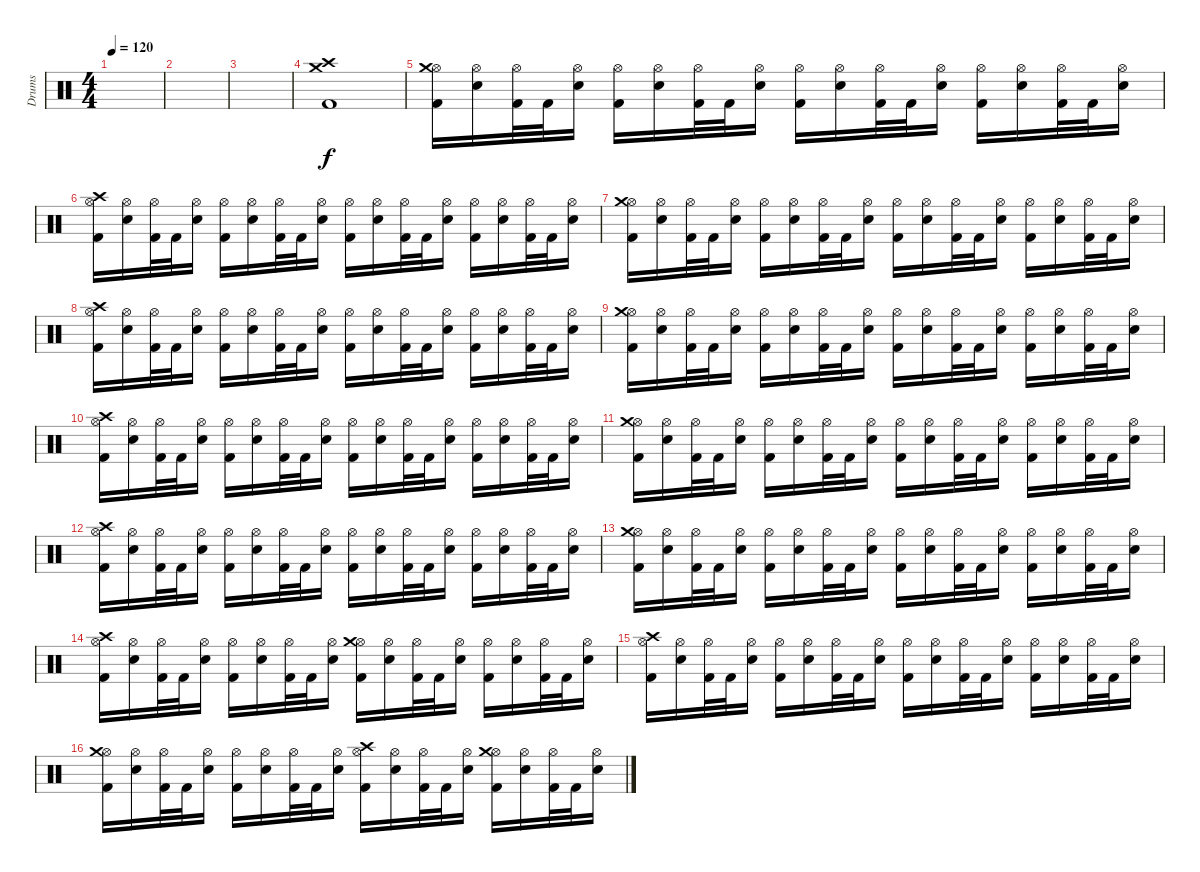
\track ("Drums" "Drums") {instrument percussion}
\staff {score}
\articulation defaults
\ts (4 4)
\tempo 120
\clef neutral
\ks c
|
|
|
("Crash medium (hit)" "Crash high (hit)" "Kick (hit) 2").1 |
("Hi-Hat (open)" "Kick (hit) 2" "Crash medium (hit)").16 ("Hi-Hat (open)" "Electric Snare (hit)").16 ("Hi-Hat (open)" "Kick (hit) 2").32 "Kick (hit) 2".32 ("Hi-Hat (open)" "Electric Snare (hit)").16 ("Hi-Hat (open)" "Kick (hit) 2").16 ("Hi-Hat (open)" "Electric Snare (hit)").16 ("Hi-Hat (open)" "Kick (hit) 2").32 "Kick (hit) 2".32 ("Hi-Hat (open)" "Electric Snare (hit)").16 ("Hi-Hat (open)" "Kick (hit) 2").16 ("Hi-Hat (open)" "Electric Snare (hit)").16 ("Hi-Hat (open)" "Kick (hit) 2").32 "Kick (hit) 2".32 ("Hi-Hat (open)" "Electric Snare (hit)").16 ("Hi-Hat (open)" "Kick (hit) 2").16 ("Hi-Hat (open)" "Electric Snare (hit)").16 ("Hi-Hat (open)" "Kick (hit) 2").32 "Kick (hit) 2".32 ("Hi-Hat (open)" "Electric Snare (hit)").16 |
("Hi-Hat (open)" "Kick (hit) 2" "Crash high (hit)").16 ("Hi-Hat (open)" "Electric Snare (hit)").16 ("Hi-Hat (open)" "Kick (hit) 2").32 "Kick (hit) 2".32 ("Hi-Hat (open)" "Electric Snare (hit)").16 ("Hi-Hat (open)" "Kick (hit) 2").16 ("Hi-Hat (open)" "Electric Snare (hit)").16 ("Hi-Hat (open)" "Kick (hit) 2").32 "Kick (hit) 2".32 ("Hi-Hat (open)" "Electric Snare (hit)").16 ("Hi-Hat (open)" "Kick (hit) 2").16 ("Hi-Hat (open)" "Electric Snare (hit)").16 ("Hi-Hat (open)" "Kick (hit) 2").32 "Kick (hit) 2".32 ("Hi-Hat (open)" "Electric Snare (hit)").16 ("Hi-Hat (open)" "Kick (hit) 2").16 ("Hi-Hat (open)" "Electric Snare (hit)").16 ("Hi-Hat (open)" "Kick (hit) 2").32 "Kick (hit) 2".32 ("Hi-Hat (open)" "Electric Snare (hit)").16 |
("Hi-Hat (open)" "Kick (hit) 2" "Crash medium (hit)").16 ("Hi-Hat (open)" "Electric Snare (hit)").16 ("Hi-Hat (open)" "Kick (hit) 2").32 "Kick (hit) 2".32 ("Hi-Hat (open)" "Electric Snare (hit)").16 ("Hi-Hat (open)" "Kick (hit) 2").16 ("Hi-Hat (open)" "Electric Snare (hit)").16 ("Hi-Hat (open)" "Kick (hit) 2").32 "Kick (hit) 2".32 ("Hi-Hat (open)" "Electric Snare (hit)").16 ("Hi-Hat (open)" "Kick (hit) 2").16 ("Hi-Hat (open)" "Electric Snare (hit)").16 ("Hi-Hat (open)" "Kick (hit) 2").32 "Kick (hit) 2".32 ("Hi-Hat (open)" "Electric Snare (hit)").16 ("Hi-Hat (open)" "Kick (hit) 2").16 ("Hi-Hat (open)" "Electric Snare (hit)").16 ("Hi-Hat (open)" "Kick (hit) 2").32 "Kick (hit) 2".32 ("Hi-Hat (open)" "Electric Snare (hit)").16 |
("Hi-Hat (open)" "Kick (hit) 2" "Crash high (hit)").16 ("Hi-Hat (open)" "Electric Snare (hit)").16 ("Hi-Hat (open)" "Kick (hit) 2").32 "Kick (hit) 2".32 ("Hi-Hat (open)" "Electric Snare (hit)").16 ("Hi-Hat (open)" "Kick (hit) 2").16 ("Hi-Hat (open)" "Electric Snare (hit)").16 ("Hi-Hat (open)" "Kick (hit) 2").32 "Kick (hit) 2".32 ("Hi-Hat (open)" "Electric Snare (hit)").16 ("Hi-Hat (open)" "Kick (hit) 2").16 ("Hi-Hat (open)" "Electric Snare (hit)").16 ("Hi-Hat (open)" "Kick (hit) 2").32 "Kick (hit) 2".32 ("Hi-Hat (open)" "Electric Snare (hit)").16 ("Hi-Hat (open)" "Kick (hit) 2").16 ("Hi-Hat (open)" "Electric Snare (hit)").16 ("Hi-Hat (open)" "Kick (hit) 2").32 "Kick (hit) 2".32 ("Hi-Hat (open)" "Electric Snare (hit)").16 |
("Hi-Hat (open)" "Kick (hit) 2" "Crash medium (hit)").16 ("Hi-Hat (open)" "Electric Snare (hit)").16 ("Hi-Hat (open)" "Kick (hit) 2").32 "Kick (hit) 2".32 ("Hi-Hat (open)" "Electric Snare (hit)").16 ("Hi-Hat (open)" "Kick (hit) 2").16 ("Hi-Hat (open)" "Electric Snare (hit)").16 ("Hi-Hat (open)" "Kick (hit) 2").32 "Kick (hit) 2".32 ("Hi-Hat (open)" "Electric Snare (hit)").16 ("Hi-Hat (open)" "Kick (hit) 2").16 ("Hi-Hat (open)" "Electric Snare (hit)").16 ("Hi-Hat (open)" "Kick (hit) 2").32 "Kick (hit) 2".32 ("Hi-Hat (open)" "Electric Snare (hit)").16 ("Hi-Hat (open)" "Kick (hit) 2").16 ("Hi-Hat (open)" "Electric Snare (hit)").16 ("Hi-Hat (open)" "Kick (hit) 2").32 "Kick (hit) 2".32 ("Hi-Hat (open)" "Electric Snare (hit)").16 |
("Hi-Hat (open)" "Kick (hit) 2" "Crash high (hit)").16 ("Hi-Hat (open)" "Electric Snare (hit)").16 ("Hi-Hat (open)" "Kick (hit) 2").32 "Kick (hit) 2".32 ("Hi-Hat (open)" "Electric Snare (hit)").16 ("Hi-Hat (open)" "Kick (hit) 2").16 ("Hi-Hat (open)" "Electric Snare (hit)").16 ("Hi-Hat (open)" "Kick (hit) 2").32 "Kick (hit) 2".32 ("Hi-Hat (open)" "Electric Snare (hit)").16 ("Hi-Hat (open)" "Kick (hit) 2").16 ("Hi-Hat (open)" "Electric Snare (hit)").16 ("Hi-Hat (open)" "Kick (hit) 2").32 "Kick (hit) 2".32 ("Hi-Hat (open)" "Electric Snare (hit)").16 ("Hi-Hat (open)" "Kick (hit) 2").16 ("Hi-Hat (open)" "Electric Snare (hit)").16 ("Hi-Hat (open)" "Kick (hit) 2").32 "Kick (hit) 2".32 ("Hi-Hat (open)" "Electric Snare (hit)").16 |
("Hi-Hat (open)" "Kick (hit) 2" "Crash medium (hit)").16 ("Hi-Hat (open)" "Electric Snare (hit)").16 ("Hi-Hat (open)" "Kick (hit) 2").32 "Kick (hit) 2".32 ("Hi-Hat (open)" "Electric Snare (hit)").16 ("Hi-Hat (open)" "Kick (hit) 2").16 ("Hi-Hat (open)" "Electric Snare (hit)").16 ("Hi-Hat (open)" "Kick (hit) 2").32 "Kick (hit) 2".32 ("Hi-Hat (open)" "Electric Snare (hit)").16 ("Hi-Hat (open)" "Kick (hit) 2").16 ("Hi-Hat (open)" "Electric Snare (hit)").16 ("Hi-Hat (open)" "Kick (hit) 2").32 "Kick (hit) 2".32 ("Hi-Hat (open)" "Electric Snare (hit)").16 ("Hi-Hat (open)" "Kick (hit) 2").16 ("Hi-Hat (open)" "Electric Snare (hit)").16 ("Hi-Hat (open)" "Kick (hit) 2").32 "Kick (hit) 2".32 ("Hi-Hat (open)" "Electric Snare (hit)").16 |
("Hi-Hat (open)" "Kick (hit) 2" "Crash high (hit)").16 ("Hi-Hat (open)" "Electric Snare (hit)").16 ("Hi-Hat (open)" "Kick (hit) 2").32 "Kick (hit) 2".32 ("Hi-Hat (open)" "Electric Snare (hit)").16 ("Hi-Hat (open)" "Kick (hit) 2").16 ("Hi-Hat (open)" "Electric Snare (hit)").16 ("Hi-Hat (open)" "Kick (hit) 2").32 "Kick (hit) 2".32 ("Hi-Hat (open)" "Electric Snare (hit)").16 ("Hi-Hat (open)" "Kick (hit) 2").16 ("Hi-Hat (open)" "Electric Snare (hit)").16 ("Hi-Hat (open)" "Kick (hit) 2").32 "Kick (hit) 2".32 ("Hi-Hat (open)" "Electric Snare (hit)").16 ("Hi-Hat (open)" "Kick (hit) 2").16 ("Hi-Hat (open)" "Electric Snare (hit)").16 ("Hi-Hat (open)" "Kick (hit) 2").32 "Kick (hit) 2".32 ("Hi-Hat (open)" "Electric Snare (hit)").16 |
("Hi-Hat (open)" "Kick (hit) 2" "Crash medium (hit)").16 ("Hi-Hat (open)" "Electric Snare (hit)").16 ("Hi-Hat (open)" "Kick (hit) 2").32 "Kick (hit) 2".32 ("Hi-Hat (open)" "Electric Snare (hit)").16 ("Hi-Hat (open)" "Kick (hit) 2").16 ("Hi-Hat (open)" "Electric Snare (hit)").16 ("Hi-Hat (open)" "Kick (hit) 2").32 "Kick (hit) 2".32 ("Hi-Hat (open)" "Electric Snare (hit)").16 ("Hi-Hat (open)" "Kick (hit) 2").16 ("Hi-Hat (open)" "Electric Snare (hit)").16 ("Hi-Hat (open)" "Kick (hit) 2").32 "Kick (hit) 2".32 ("Hi-Hat (open)" "Electric Snare (hit)").16 ("Hi-Hat (open)" "Kick (hit) 2").16 ("Hi-Hat (open)" "Electric Snare (hit)").16 ("Hi-Hat (open)" "Kick (hit) 2").32 "Kick (hit) 2".32 ("Hi-Hat (open)" "Electric Snare (hit)").16 |
("Hi-Hat (open)" "Kick (hit) 2" "Crash high (hit)").16 ("Hi-Hat (open)" "Electric Snare (hit)").16 ("Hi-Hat (open)" "Kick (hit) 2").32 "Kick (hit) 2".32 ("Hi-Hat (open)" "Electric Snare (hit)").16 ("Hi-Hat (open)" "Kick (hit) 2").16 ("Hi-Hat (open)" "Electric Snare (hit)").16 ("Hi-Hat (open)" "Kick (hit) 2").32 "Kick (hit) 2".32 ("Hi-Hat (open)" "Electric Snare (hit)").16 ("Hi-Hat (open)" "Kick (hit) 2" "Crash medium (hit)").16 ("Hi-Hat (open)" "Electric Snare (hit)").16 ("Hi-Hat (open)" "Kick (hit) 2").32 "Kick (hit) 2".32 ("Hi-Hat (open)" "Electric Snare (hit)").16 ("Hi-Hat (open)" "Kick (hit) 2").16 ("Hi-Hat (open)" "Electric Snare (hit)").16 ("Hi-Hat (open)" "Kick (hit) 2").32 "Kick (hit) 2".32 ("Hi-Hat (open)" "Electric Snare (hit)").16 |
("Hi-Hat (open)" "Kick (hit) 2" "Crash high (hit)").16 ("Hi-Hat (open)" "Electric Snare (hit)").16 ("Hi-Hat (open)" "Kick (hit) 2").32 "Kick (hit) 2".32 ("Hi-Hat (open)" "Electric Snare (hit)").16 ("Hi-Hat (open)" "Kick (hit) 2").16 ("Hi-Hat (open)" "Electric Snare (hit)").16 ("Hi-Hat (open)" "Kick (hit) 2").32 "Kick (hit) 2".32 ("Hi-Hat (open)" "Electric Snare (hit)").16 ("Hi-Hat (open)" "Kick (hit) 2").16 ("Hi-Hat (open)" "Electric Snare (hit)").16 ("Hi-Hat (open)" "Kick (hit) 2").32 "Kick (hit) 2".32 ("Hi-Hat (open)" "Electric Snare (hit)").16 ("Hi-Hat (open)" "Kick (hit) 2").16 ("Hi-Hat (open)" "Electric Snare (hit)").16 ("Hi-Hat (open)" "Kick (hit) 2").32 "Kick (hit) 2".32 ("Hi-Hat (open)" "Electric Snare (hit)").16 |
("Hi-Hat (open)" "Kick (hit) 2" "Crash medium (hit)").16 ("Hi-Hat (open)" "Electric Snare (hit)").16 ("Hi-Hat (open)" "Kick (hit) 2").32 "Kick (hit) 2".32 ("Hi-Hat (open)" "Electric Snare (hit)").16 ("Hi-Hat (open)" "Kick (hit) 2").16 ("Hi-Hat (open)" "Electric Snare (hit)").16 ("Hi-Hat (open)" "Kick (hit) 2").32 "Kick (hit) 2".32 ("Hi-Hat (open)" "Electric Snare (hit)").16 ("Hi-Hat (open)" "Kick (hit) 2" "Crash high (hit)").16 ("Hi-Hat (open)" "Electric Snare (hit)").16 ("Hi-Hat (open)" "Kick (hit) 2").32 "Kick (hit) 2".32 ("Hi-Hat (open)" "Electric Snare (hit)").16 ("Hi-Hat (open)" "Kick (hit) 2" "Crash medium (hit)").16 ("Hi-Hat (open)" "Electric Snare (hit)").16 ("Hi-Hat (open)" "Kick (hit) 2").32 "Kick (hit) 2".32 ("Hi-Hat (open)" "Electric Snare (hit)").16
